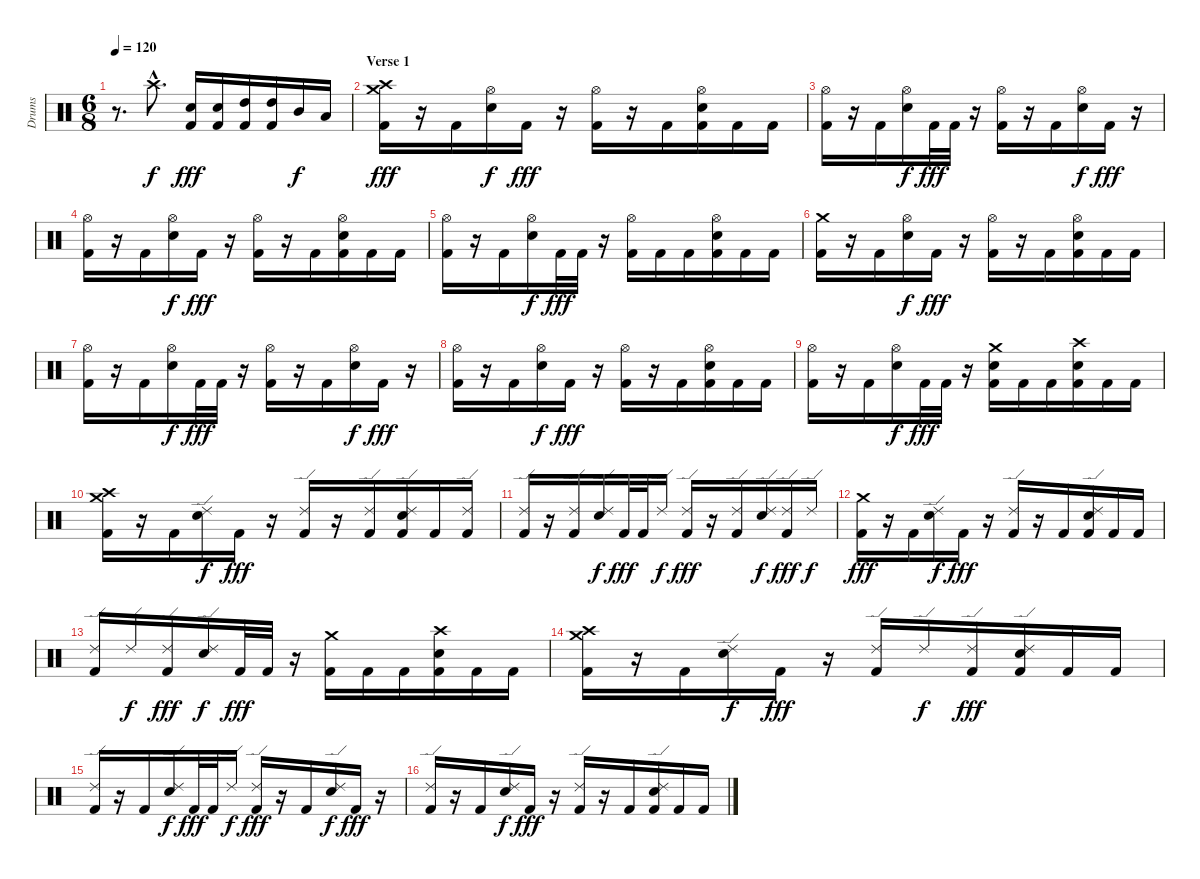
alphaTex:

\track ("Drums" "Drums") {instrument percussion}
\staff {score}
\articulation defaults
\ts (6 8)
\tempo 120
\clef neutral
\ks c
r.8{d dy f} "Crash high (hit)"{hac}.8{d} ("Snare (hit) 2" "Kick (hit) 2").16{dy fff} ("Snare (hit) 2" "Kick (hit) 2").16 ("High Tom (hit)" "Kick (hit) 2").16 ("High Tom (hit)" "Kick (hit) 2").16 "Mid Tom (hit)".16{dy f} "Low Tom (hit)".16 |
\section ("" "Verse 1")
("Crash medium (hit)" "Crash high (hit)" "Kick (hit) 2").16{dy fff} r.16 "Kick (hit) 2".16 ("Hi-Hat (open)" "Snare (hit) 2").16{dy f} "Kick (hit) 2".16{dy fff} r.16 ("Hi-Hat (open)" "Kick (hit) 2").16 r.16 "Kick (hit) 2".16 ("Hi-Hat (open)" "Snare (hit) 2" "Kick (hit) 2").16 "Kick (hit) 2".16 "Kick (hit) 2".16 |
("Hi-Hat (open)" "Kick (hit) 2").16 r.16 "Kick (hit) 2".16 ("Hi-Hat (open)" "Snare (hit) 2").16{dy f} "Kick (hit) 2".32{dy fff} "Kick (hit) 2".32 r.16 ("Hi-Hat (open)" "Kick (hit) 2").16 r.16 "Kick (hit) 2".16 ("Hi-Hat (open)" "Snare (hit) 2").16{dy f} "Kick (hit) 2".16{dy fff} r.16 |
("Hi-Hat (open)" "Kick (hit) 2").16 r.16 "Kick (hit) 2".16 ("Hi-Hat (open)" "Snare (hit) 2").16{dy f} "Kick (hit) 2".16{dy fff} r.16 ("Hi-Hat (open)" "Kick (hit) 2").16 r.16 "Kick (hit) 2".16 ("Hi-Hat (open)" "Snare (hit) 2" "Kick (hit) 2").16 "Kick (hit) 2".16 "Kick (hit) 2".16 |
("Hi-Hat (open)" "Kick (hit) 2").16 r.16 "Kick (hit) 2".16 ("Hi-Hat (open)" "Snare (hit) 2").16{dy f} "Kick (hit) 2".32{dy fff} "Kick (hit) 2".32 r.16 ("Hi-Hat (open)" "Kick (hit) 2").16 "Kick (hit) 2".16 "Kick (hit) 2".16 ("Hi-Hat (open)" "Snare (hit) 2" "Kick (hit) 2").16 "Kick (hit) 2".16 "Kick (hit) 2".16 |
("Crash medium (hit)" "Kick (hit) 2").16 r.16 "Kick (hit) 2".16 ("Hi-Hat (open)" "Snare (hit) 2").16{dy f} "Kick (hit) 2".16{dy fff} r.16 ("Hi-Hat (open)" "Kick (hit) 2").16 r.16 "Kick (hit) 2".16 ("Hi-Hat (open)" "Snare (hit) 2" "Kick (hit) 2").16 "Kick (hit) 2".16 "Kick (hit) 2".16 |
("Hi-Hat (open)" "Kick (hit) 2").16 r.16 "Kick (hit) 2".16 ("Hi-Hat (open)" "Snare (hit) 2").16{dy f} "Kick (hit) 2".32{dy fff} "Kick (hit) 2".32 r.16 ("Hi-Hat (open)" "Kick (hit) 2").16 r.16 "Kick (hit) 2".16 ("Hi-Hat (open)" "Snare (hit) 2").16{dy f} "Kick (hit) 2".16{dy fff} r.16 |
("Hi-Hat (open)" "Kick (hit) 2").16 r.16 "Kick (hit) 2".16 ("Hi-Hat (open)" "Snare (hit) 2").16{dy f} "Kick (hit) 2".16{dy fff} r.16 ("Hi-Hat (open)" "Kick (hit) 2").16 r.16 "Kick (hit) 2".16 ("Hi-Hat (open)" "Snare (hit) 2" "Kick (hit) 2").16 "Kick (hit) 2".16 "Kick (hit) 2".16 |
("Hi-Hat (open)" "Kick (hit) 2").16 r.16 "Kick (hit) 2".16 ("Hi-Hat (open)" "Snare (hit) 2").16{dy f} "Kick (hit) 2".32{dy fff} "Kick (hit) 2".32 r.16 ("Crash medium (hit)" "Snare (hit) 2" "Kick (hit) 2").16 "Kick (hit) 2".16 "Kick (hit) 2".16 ("Crash high (hit)" "Snare (hit) 2" "Kick (hit) 2").16 "Kick (hit) 2".16 "Kick (hit) 2".16 |
("Crash medium (hit)" "Crash high (hit)" "Kick (hit) 2").16 r.16 "Kick (hit) 2".16 ("Ride (edge) 2" "Snare (hit) 2").16{dy f} "Kick (hit) 2".16{dy fff} r.16 ("Ride (edge) 2" "Kick (hit) 2").16 r.16 ("Ride (edge) 2" "Kick (hit) 2").16 ("Ride (edge) 2" "Snare (hit) 2" "Kick (hit) 2").16 "Kick (hit) 2".16 ("Ride (edge) 2" "Kick (hit) 2").16 |
("Ride (edge) 2" "Kick (hit) 2").16 r.16 ("Ride (edge) 2" "Kick (hit) 2").16 ("Ride (edge) 2" "Snare (hit) 2").16{dy f} "Kick (hit) 2".32{dy fff} "Kick (hit) 2".32 "Ride (edge) 2".16{dy f} ("Ride (edge) 2" "Kick (hit) 2").16{dy fff} r.16 ("Ride (edge) 2" "Kick (hit) 2").16 ("Ride (edge) 2" "Snare (hit) 2").16{dy f} ("Ride (edge) 2" "Kick (hit) 2").16{dy fff} "Ride (edge) 2".16{dy f} |
("Crash medium (hit)" "Kick (hit) 2").16{dy fff} r.16 "Kick (hit) 2".16 ("Ride (edge) 2" "Snare (hit) 2").16{dy f} "Kick (hit) 2".16{dy fff} r.16 ("Ride (edge) 2" "Kick (hit) 2").16 r.16 "Kick (hit) 2".16 ("Ride (edge) 2" "Snare (hit) 2" "Kick (hit) 2").16 "Kick (hit) 2".16 "Kick (hit) 2".16 |
("Ride (edge) 2" "Kick (hit) 2").16 "Ride (edge) 2".16{dy f} ("Ride (edge) 2" "Kick (hit) 2").16{dy fff} ("Ride (edge) 2" "Snare (hit) 2").16{dy f} "Kick (hit) 2".32{dy fff} "Kick (hit) 2".32 r.16 ("Crash medium (hit)" "Kick (hit) 2").16 "Kick (hit) 2".16 "Kick (hit) 2".16 ("Crash high (hit)" "Snare (hit) 2" "Kick (hit) 2").16 "Kick (hit) 2".16 "Kick (hit) 2".16 |
("Crash medium (hit)" "Crash high (hit)" "Kick (hit) 2").16 r.16 "Kick (hit) 2".16 ("Ride (edge) 2" "Snare (hit) 2").16{dy f} "Kick (hit) 2".16{dy fff} r.16 ("Ride (edge) 2" "Kick (hit) 2").16 "Ride (edge) 2".16{dy f} ("Ride (edge) 2" "Kick (hit) 2").16{dy fff} ("Ride (edge) 2" "Snare (hit) 2" "Kick (hit) 2").16 "Kick (hit) 2".16 "Kick (hit) 2".16 |
("Ride (edge) 2" "Kick (hit) 2").16 r.16 "Kick (hit) 2".16 ("Ride (edge) 2" "Snare (hit) 2").16{dy f} "Kick (hit) 2".32{dy fff} "Kick (hit) 2".32 "Ride (edge) 2".16{dy f} ("Ride (edge) 2" "Kick (hit) 2").16{dy fff} r.16 "Kick (hit) 2".16 ("Ride (edge) 2" "Snare (hit) 2").16{dy f} "Kick (hit) 2".16{dy fff} r.16 |
("Ride (edge) 2" "Kick (hit) 2").16 r.16 "Kick (hit) 2".16 ("Ride (edge) 2" "Snare (hit) 2").16{dy f} "Kick (hit) 2".16{dy fff} r.16 ("Ride (edge) 2" "Kick (hit) 2").16 r.16 "Kick (hit) 2".16 ("Ride (edge) 2" "Snare (hit) 2" "Kick (hit) 2").16 "Kick (hit) 2".16 "Kick (hit) 2".16
